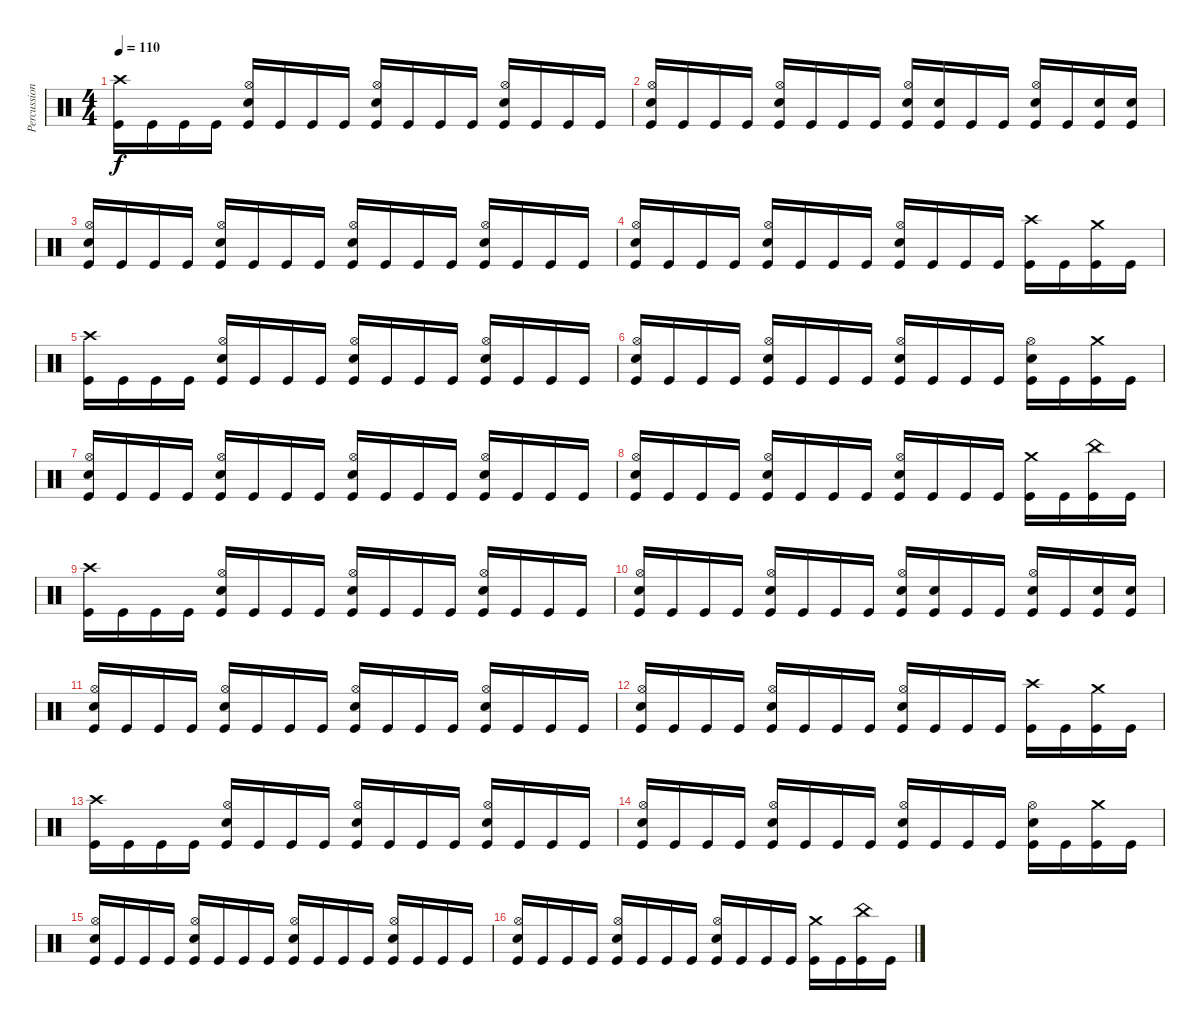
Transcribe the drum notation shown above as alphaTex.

\track ("Percussion" "Percussion") {instrument percussion}
\staff {score}
\articulation defaults
\ts (4 4)
\tempo 110
\clef neutral
\ks c
("Crash high (hit)" "Kick (hit)").16{dy f} "Kick (hit)".16 "Kick (hit)".16 "Kick (hit)".16 ("Hi-Hat (open)" "Snare (hit) 2" "Kick (hit)").16 "Kick (hit)".16 "Kick (hit)".16 "Kick (hit)".16 ("Hi-Hat (open)" "Snare (hit) 2" "Kick (hit)").16 "Kick (hit)".16 "Kick (hit)".16 "Kick (hit)".16 ("Hi-Hat (open)" "Snare (hit) 2" "Kick (hit)").16 "Kick (hit)".16 "Kick (hit)".16 "Kick (hit)".16 |
("Hi-Hat (open)" "Snare (hit) 2" "Kick (hit)").16 "Kick (hit)".16 "Kick (hit)".16 "Kick (hit)".16 ("Hi-Hat (open)" "Snare (hit) 2" "Kick (hit)").16 "Kick (hit)".16 "Kick (hit)".16 "Kick (hit)".16 ("Hi-Hat (open)" "Snare (hit) 2" "Kick (hit)").16 ("Snare (hit) 2" "Kick (hit)").16 "Kick (hit)".16 "Kick (hit)".16 ("Hi-Hat (open)" "Snare (hit) 2" "Kick (hit)").16 "Kick (hit)".16 ("Snare (hit) 2" "Kick (hit)").16 ("Snare (hit) 2" "Kick (hit)").16 |
("Hi-Hat (open)" "Snare (hit) 2" "Kick (hit)").16 "Kick (hit)".16 "Kick (hit)".16 "Kick (hit)".16 ("Hi-Hat (open)" "Snare (hit) 2" "Kick (hit)").16 "Kick (hit)".16 "Kick (hit)".16 "Kick (hit)".16 ("Hi-Hat (open)" "Snare (hit) 2" "Kick (hit)").16 "Kick (hit)".16 "Kick (hit)".16 "Kick (hit)".16 ("Hi-Hat (open)" "Snare (hit) 2" "Kick (hit)").16 "Kick (hit)".16 "Kick (hit)".16 "Kick (hit)".16 |
("Hi-Hat (open)" "Snare (hit) 2" "Kick (hit)").16 "Kick (hit)".16 "Kick (hit)".16 "Kick (hit)".16 ("Hi-Hat (open)" "Snare (hit) 2" "Kick (hit)").16 "Kick (hit)".16 "Kick (hit)".16 "Kick (hit)".16 ("Hi-Hat (open)" "Snare (hit) 2" "Kick (hit)").16 "Kick (hit)".16 "Kick (hit)".16 "Kick (hit)".16 ("Crash high (hit)" "Kick (hit)").16 "Kick (hit)".16 ("Crash medium (hit)" "Kick (hit)").16 "Kick (hit)".16 |
("Crash high (hit)" "Kick (hit)").16 "Kick (hit)".16 "Kick (hit)".16 "Kick (hit)".16 ("Hi-Hat (open)" "Snare (hit) 2" "Kick (hit)").16 "Kick (hit)".16 "Kick (hit)".16 "Kick (hit)".16 ("Hi-Hat (open)" "Snare (hit) 2" "Kick (hit)").16 "Kick (hit)".16 "Kick (hit)".16 "Kick (hit)".16 ("Hi-Hat (open)" "Snare (hit) 2" "Kick (hit)").16 "Kick (hit)".16 "Kick (hit)".16 "Kick (hit)".16 |
("Hi-Hat (open)" "Snare (hit) 2" "Kick (hit)").16 "Kick (hit)".16 "Kick (hit)".16 "Kick (hit)".16 ("Hi-Hat (open)" "Snare (hit) 2" "Kick (hit)").16 "Kick (hit)".16 "Kick (hit)".16 "Kick (hit)".16 ("Hi-Hat (open)" "Snare (hit) 2" "Kick (hit)").16 "Kick (hit)".16 "Kick (hit)".16 "Kick (hit)".16 ("Hi-Hat (open)" "Snare (hit) 2" "Kick (hit)").16 "Kick (hit)".16 ("Crash medium (hit)" "Kick (hit)").16 "Kick (hit)".16 |
("Hi-Hat (open)" "Snare (hit) 2" "Kick (hit)").16 "Kick (hit)".16 "Kick (hit)".16 "Kick (hit)".16 ("Hi-Hat (open)" "Snare (hit) 2" "Kick (hit)").16 "Kick (hit)".16 "Kick (hit)".16 "Kick (hit)".16 ("Hi-Hat (open)" "Snare (hit) 2" "Kick (hit)").16 "Kick (hit)".16 "Kick (hit)".16 "Kick (hit)".16 ("Hi-Hat (open)" "Snare (hit) 2" "Kick (hit)").16 "Kick (hit)".16 "Kick (hit)".16 "Kick (hit)".16 |
("Hi-Hat (open)" "Snare (hit) 2" "Kick (hit)").16 "Kick (hit)".16 "Kick (hit)".16 "Kick (hit)".16 ("Hi-Hat (open)" "Snare (hit) 2" "Kick (hit)").16 "Kick (hit)".16 "Kick (hit)".16 "Kick (hit)".16 ("Hi-Hat (open)" "Snare (hit) 2" "Kick (hit)").16 "Kick (hit)".16 "Kick (hit)".16 "Kick (hit)".16 ("Crash medium (hit)" "Kick (hit)").16 "Kick (hit)".16 ("China (hit)" "Kick (hit)").16 "Kick (hit)".16 |
("Crash high (hit)" "Kick (hit)").16 "Kick (hit)".16 "Kick (hit)".16 "Kick (hit)".16 ("Hi-Hat (open)" "Snare (hit) 2" "Kick (hit)").16 "Kick (hit)".16 "Kick (hit)".16 "Kick (hit)".16 ("Hi-Hat (open)" "Snare (hit) 2" "Kick (hit)").16 "Kick (hit)".16 "Kick (hit)".16 "Kick (hit)".16 ("Hi-Hat (open)" "Snare (hit) 2" "Kick (hit)").16 "Kick (hit)".16 "Kick (hit)".16 "Kick (hit)".16 |
("Hi-Hat (open)" "Snare (hit) 2" "Kick (hit)").16 "Kick (hit)".16 "Kick (hit)".16 "Kick (hit)".16 ("Hi-Hat (open)" "Snare (hit) 2" "Kick (hit)").16 "Kick (hit)".16 "Kick (hit)".16 "Kick (hit)".16 ("Hi-Hat (open)" "Snare (hit) 2" "Kick (hit)").16 ("Snare (hit) 2" "Kick (hit)").16 "Kick (hit)".16 "Kick (hit)".16 ("Hi-Hat (open)" "Snare (hit) 2" "Kick (hit)").16 "Kick (hit)".16 ("Snare (hit) 2" "Kick (hit)").16 ("Snare (hit) 2" "Kick (hit)").16 |
("Hi-Hat (open)" "Snare (hit) 2" "Kick (hit)").16 "Kick (hit)".16 "Kick (hit)".16 "Kick (hit)".16 ("Hi-Hat (open)" "Snare (hit) 2" "Kick (hit)").16 "Kick (hit)".16 "Kick (hit)".16 "Kick (hit)".16 ("Hi-Hat (open)" "Snare (hit) 2" "Kick (hit)").16 "Kick (hit)".16 "Kick (hit)".16 "Kick (hit)".16 ("Hi-Hat (open)" "Snare (hit) 2" "Kick (hit)").16 "Kick (hit)".16 "Kick (hit)".16 "Kick (hit)".16 |
("Hi-Hat (open)" "Snare (hit) 2" "Kick (hit)").16 "Kick (hit)".16 "Kick (hit)".16 "Kick (hit)".16 ("Hi-Hat (open)" "Snare (hit) 2" "Kick (hit)").16 "Kick (hit)".16 "Kick (hit)".16 "Kick (hit)".16 ("Hi-Hat (open)" "Snare (hit) 2" "Kick (hit)").16 "Kick (hit)".16 "Kick (hit)".16 "Kick (hit)".16 ("Crash high (hit)" "Kick (hit)").16 "Kick (hit)".16 ("Crash medium (hit)" "Kick (hit)").16 "Kick (hit)".16 |
("Crash high (hit)" "Kick (hit)").16 "Kick (hit)".16 "Kick (hit)".16 "Kick (hit)".16 ("Hi-Hat (open)" "Snare (hit) 2" "Kick (hit)").16 "Kick (hit)".16 "Kick (hit)".16 "Kick (hit)".16 ("Hi-Hat (open)" "Snare (hit) 2" "Kick (hit)").16 "Kick (hit)".16 "Kick (hit)".16 "Kick (hit)".16 ("Hi-Hat (open)" "Snare (hit) 2" "Kick (hit)").16 "Kick (hit)".16 "Kick (hit)".16 "Kick (hit)".16 |
("Hi-Hat (open)" "Snare (hit) 2" "Kick (hit)").16 "Kick (hit)".16 "Kick (hit)".16 "Kick (hit)".16 ("Hi-Hat (open)" "Snare (hit) 2" "Kick (hit)").16 "Kick (hit)".16 "Kick (hit)".16 "Kick (hit)".16 ("Hi-Hat (open)" "Snare (hit) 2" "Kick (hit)").16 "Kick (hit)".16 "Kick (hit)".16 "Kick (hit)".16 ("Hi-Hat (open)" "Snare (hit) 2" "Kick (hit)").16 "Kick (hit)".16 ("Crash medium (hit)" "Kick (hit)").16 "Kick (hit)".16 |
("Hi-Hat (open)" "Snare (hit) 2" "Kick (hit)").16 "Kick (hit)".16 "Kick (hit)".16 "Kick (hit)".16 ("Hi-Hat (open)" "Snare (hit) 2" "Kick (hit)").16 "Kick (hit)".16 "Kick (hit)".16 "Kick (hit)".16 ("Hi-Hat (open)" "Snare (hit) 2" "Kick (hit)").16 "Kick (hit)".16 "Kick (hit)".16 "Kick (hit)".16 ("Hi-Hat (open)" "Snare (hit) 2" "Kick (hit)").16 "Kick (hit)".16 "Kick (hit)".16 "Kick (hit)".16 |
("Hi-Hat (open)" "Snare (hit) 2" "Kick (hit)").16 "Kick (hit)".16 "Kick (hit)".16 "Kick (hit)".16 ("Hi-Hat (open)" "Snare (hit) 2" "Kick (hit)").16 "Kick (hit)".16 "Kick (hit)".16 "Kick (hit)".16 ("Hi-Hat (open)" "Snare (hit) 2" "Kick (hit)").16 "Kick (hit)".16 "Kick (hit)".16 "Kick (hit)".16 ("Crash medium (hit)" "Kick (hit)").16 "Kick (hit)".16 ("China (hit)" "Kick (hit)").16 "Kick (hit)".16
